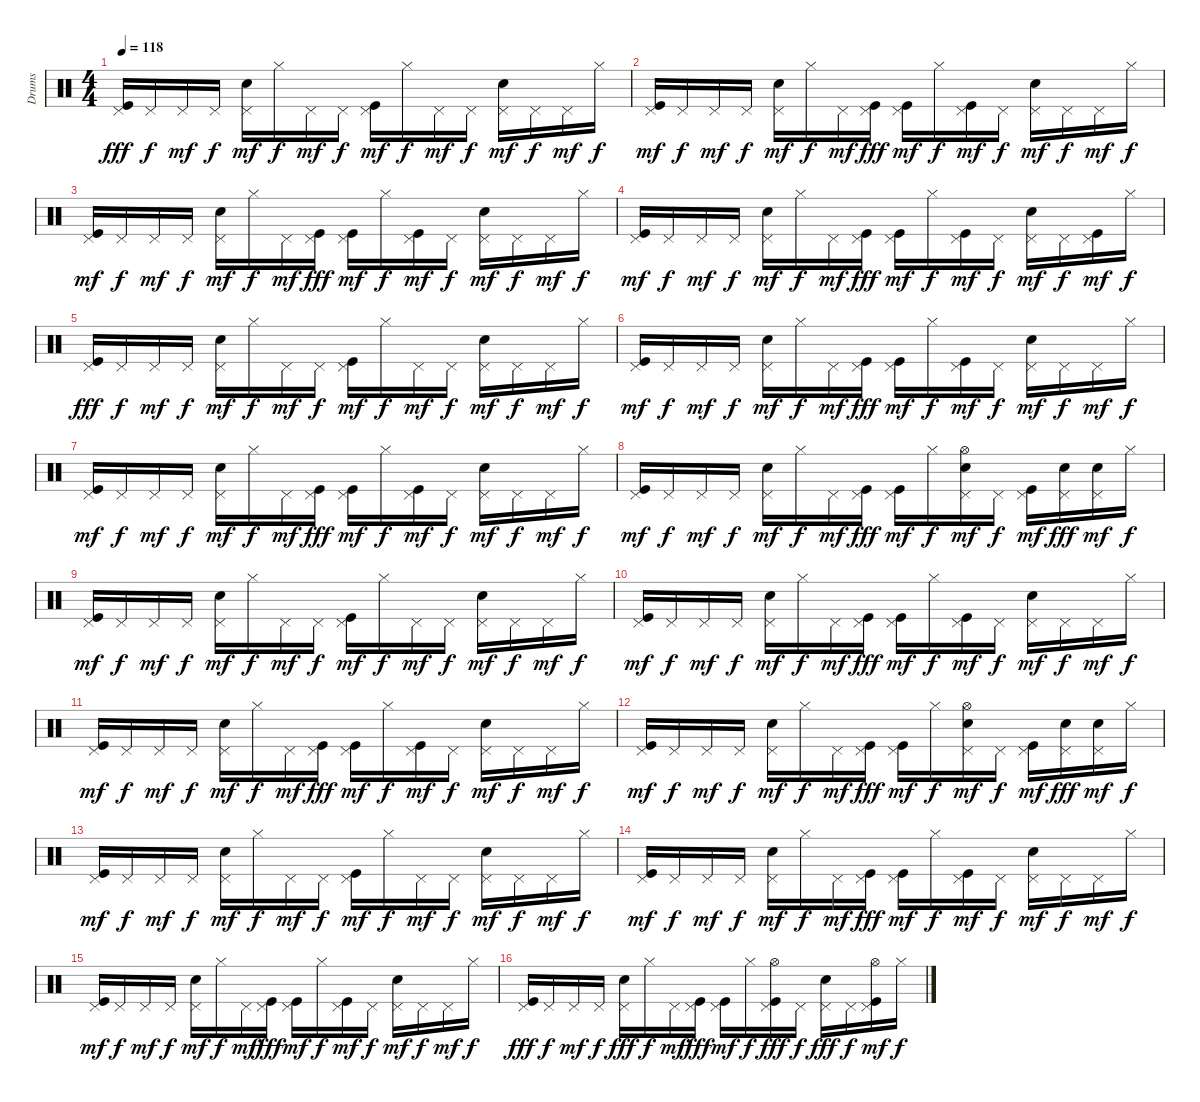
\track ("Drums" "Drums") {instrument percussion}
\staff {score}
\articulation defaults
\ts (4 4)
\tempo 118
\clef neutral
\ks c
("Pedal Hi-Hat (hit)" "Kick (hit)").16{dy fff} "Pedal Hi-Hat (hit)".16{dy f} "Pedal Hi-Hat (hit)".16{dy mf} "Pedal Hi-Hat (hit)".16{dy f} ("Electric Snare (hit)" "Pedal Hi-Hat (hit)").16{dy mf} "Hi-Hat (closed)".16{dy f} "Pedal Hi-Hat (hit)".16{dy mf} "Pedal Hi-Hat (hit)".16{dy f} ("Kick (hit)" "Pedal Hi-Hat (hit)").16{dy mf} "Hi-Hat (closed)".16{dy f} "Pedal Hi-Hat (hit)".16{dy mf} "Pedal Hi-Hat (hit)".16{dy f} ("Electric Snare (hit)" "Pedal Hi-Hat (hit)").16{dy mf} "Pedal Hi-Hat (hit)".16{dy f} "Pedal Hi-Hat (hit)".16{dy mf} "Hi-Hat (closed)".16{dy f} |
("Kick (hit)" "Pedal Hi-Hat (hit)").16{dy mf} "Pedal Hi-Hat (hit)".16{dy f} "Pedal Hi-Hat (hit)".16{dy mf} "Pedal Hi-Hat (hit)".16{dy f} ("Electric Snare (hit)" "Pedal Hi-Hat (hit)").16{dy mf} "Hi-Hat (closed)".16{dy f} "Pedal Hi-Hat (hit)".16{dy mf} ("Kick (hit)" "Pedal Hi-Hat (hit)").16{dy fff} ("Kick (hit)" "Pedal Hi-Hat (hit)").16{dy mf} "Hi-Hat (closed)".16{dy f} ("Kick (hit)" "Pedal Hi-Hat (hit)").16{dy mf} "Pedal Hi-Hat (hit)".16{dy f} ("Electric Snare (hit)" "Pedal Hi-Hat (hit)").16{dy mf} "Pedal Hi-Hat (hit)".16{dy f} "Pedal Hi-Hat (hit)".16{dy mf} "Hi-Hat (closed)".16{dy f} |
("Kick (hit)" "Pedal Hi-Hat (hit)").16{dy mf} "Pedal Hi-Hat (hit)".16{dy f} "Pedal Hi-Hat (hit)".16{dy mf} "Pedal Hi-Hat (hit)".16{dy f} ("Electric Snare (hit)" "Pedal Hi-Hat (hit)").16{dy mf} "Hi-Hat (closed)".16{dy f} "Pedal Hi-Hat (hit)".16{dy mf} ("Kick (hit)" "Pedal Hi-Hat (hit)").16{dy fff} ("Kick (hit)" "Pedal Hi-Hat (hit)").16{dy mf} "Hi-Hat (closed)".16{dy f} ("Kick (hit)" "Pedal Hi-Hat (hit)").16{dy mf} "Pedal Hi-Hat (hit)".16{dy f} ("Electric Snare (hit)" "Pedal Hi-Hat (hit)").16{dy mf} "Pedal Hi-Hat (hit)".16{dy f} "Pedal Hi-Hat (hit)".16{dy mf} "Hi-Hat (closed)".16{dy f} |
("Kick (hit)" "Pedal Hi-Hat (hit)").16{dy mf} "Pedal Hi-Hat (hit)".16{dy f} "Pedal Hi-Hat (hit)".16{dy mf} "Pedal Hi-Hat (hit)".16{dy f} ("Electric Snare (hit)" "Pedal Hi-Hat (hit)").16{dy mf} "Hi-Hat (closed)".16{dy f} "Pedal Hi-Hat (hit)".16{dy mf} ("Kick (hit)" "Pedal Hi-Hat (hit)").16{dy fff} ("Kick (hit)" "Pedal Hi-Hat (hit)").16{dy mf} "Hi-Hat (closed)".16{dy f} ("Kick (hit)" "Pedal Hi-Hat (hit)").16{dy mf} "Pedal Hi-Hat (hit)".16{dy f} ("Electric Snare (hit)" "Pedal Hi-Hat (hit)").16{dy mf} "Pedal Hi-Hat (hit)".16{dy f} ("Kick (hit)" "Pedal Hi-Hat (hit)").16{dy mf} "Hi-Hat (closed)".16{dy f} |
("Pedal Hi-Hat (hit)" "Kick (hit)").16{dy fff} "Pedal Hi-Hat (hit)".16{dy f} "Pedal Hi-Hat (hit)".16{dy mf} "Pedal Hi-Hat (hit)".16{dy f} ("Electric Snare (hit)" "Pedal Hi-Hat (hit)").16{dy mf} "Hi-Hat (closed)".16{dy f} "Pedal Hi-Hat (hit)".16{dy mf} "Pedal Hi-Hat (hit)".16{dy f} ("Kick (hit)" "Pedal Hi-Hat (hit)").16{dy mf} "Hi-Hat (closed)".16{dy f} "Pedal Hi-Hat (hit)".16{dy mf} "Pedal Hi-Hat (hit)".16{dy f} ("Electric Snare (hit)" "Pedal Hi-Hat (hit)").16{dy mf} "Pedal Hi-Hat (hit)".16{dy f} "Pedal Hi-Hat (hit)".16{dy mf} "Hi-Hat (closed)".16{dy f} |
("Kick (hit)" "Pedal Hi-Hat (hit)").16{dy mf} "Pedal Hi-Hat (hit)".16{dy f} "Pedal Hi-Hat (hit)".16{dy mf} "Pedal Hi-Hat (hit)".16{dy f} ("Electric Snare (hit)" "Pedal Hi-Hat (hit)").16{dy mf} "Hi-Hat (closed)".16{dy f} "Pedal Hi-Hat (hit)".16{dy mf} ("Kick (hit)" "Pedal Hi-Hat (hit)").16{dy fff} ("Kick (hit)" "Pedal Hi-Hat (hit)").16{dy mf} "Hi-Hat (closed)".16{dy f} ("Kick (hit)" "Pedal Hi-Hat (hit)").16{dy mf} "Pedal Hi-Hat (hit)".16{dy f} ("Electric Snare (hit)" "Pedal Hi-Hat (hit)").16{dy mf} "Pedal Hi-Hat (hit)".16{dy f} "Pedal Hi-Hat (hit)".16{dy mf} "Hi-Hat (closed)".16{dy f} |
("Kick (hit)" "Pedal Hi-Hat (hit)").16{dy mf} "Pedal Hi-Hat (hit)".16{dy f} "Pedal Hi-Hat (hit)".16{dy mf} "Pedal Hi-Hat (hit)".16{dy f} ("Electric Snare (hit)" "Pedal Hi-Hat (hit)").16{dy mf} "Hi-Hat (closed)".16{dy f} "Pedal Hi-Hat (hit)".16{dy mf} ("Kick (hit)" "Pedal Hi-Hat (hit)").16{dy fff} ("Kick (hit)" "Pedal Hi-Hat (hit)").16{dy mf} "Hi-Hat (closed)".16{dy f} ("Kick (hit)" "Pedal Hi-Hat (hit)").16{dy mf} "Pedal Hi-Hat (hit)".16{dy f} ("Electric Snare (hit)" "Pedal Hi-Hat (hit)").16{dy mf} "Pedal Hi-Hat (hit)".16{dy f} "Pedal Hi-Hat (hit)".16{dy mf} "Hi-Hat (closed)".16{dy f} |
("Kick (hit)" "Pedal Hi-Hat (hit)").16{dy mf} "Pedal Hi-Hat (hit)".16{dy f} "Pedal Hi-Hat (hit)".16{dy mf} "Pedal Hi-Hat (hit)".16{dy f} ("Electric Snare (hit)" "Pedal Hi-Hat (hit)").16{dy mf} "Hi-Hat (closed)".16{dy f} "Pedal Hi-Hat (hit)".16{dy mf} ("Kick (hit)" "Pedal Hi-Hat (hit)").16{dy fff} ("Kick (hit)" "Pedal Hi-Hat (hit)").16{dy mf} "Hi-Hat (closed)".16{dy f} ("Electric Snare (hit)" "Pedal Hi-Hat (hit)" "Hi-Hat (open)").16{dy mf} "Pedal Hi-Hat (hit)".16{dy f} ("Kick (hit)" "Pedal Hi-Hat (hit)").16{dy mf} ("Electric Snare (hit)" "Pedal Hi-Hat (hit)").16{dy fff} ("Electric Snare (hit)" "Pedal Hi-Hat (hit)").16{dy mf} "Hi-Hat (closed)".16{dy f} |
("Kick (hit)" "Pedal Hi-Hat (hit)").16{dy mf} "Pedal Hi-Hat (hit)".16{dy f} "Pedal Hi-Hat (hit)".16{dy mf} "Pedal Hi-Hat (hit)".16{dy f} ("Electric Snare (hit)" "Pedal Hi-Hat (hit)").16{dy mf} "Hi-Hat (closed)".16{dy f} "Pedal Hi-Hat (hit)".16{dy mf} "Pedal Hi-Hat (hit)".16{dy f} ("Kick (hit)" "Pedal Hi-Hat (hit)").16{dy mf} "Hi-Hat (closed)".16{dy f} "Pedal Hi-Hat (hit)".16{dy mf} "Pedal Hi-Hat (hit)".16{dy f} ("Electric Snare (hit)" "Pedal Hi-Hat (hit)").16{dy mf} "Pedal Hi-Hat (hit)".16{dy f} "Pedal Hi-Hat (hit)".16{dy mf} "Hi-Hat (closed)".16{dy f} |
("Kick (hit)" "Pedal Hi-Hat (hit)").16{dy mf} "Pedal Hi-Hat (hit)".16{dy f} "Pedal Hi-Hat (hit)".16{dy mf} "Pedal Hi-Hat (hit)".16{dy f} ("Electric Snare (hit)" "Pedal Hi-Hat (hit)").16{dy mf} "Hi-Hat (closed)".16{dy f} "Pedal Hi-Hat (hit)".16{dy mf} ("Kick (hit)" "Pedal Hi-Hat (hit)").16{dy fff} ("Kick (hit)" "Pedal Hi-Hat (hit)").16{dy mf} "Hi-Hat (closed)".16{dy f} ("Kick (hit)" "Pedal Hi-Hat (hit)").16{dy mf} "Pedal Hi-Hat (hit)".16{dy f} ("Electric Snare (hit)" "Pedal Hi-Hat (hit)").16{dy mf} "Pedal Hi-Hat (hit)".16{dy f} "Pedal Hi-Hat (hit)".16{dy mf} "Hi-Hat (closed)".16{dy f} |
("Kick (hit)" "Pedal Hi-Hat (hit)").16{dy mf} "Pedal Hi-Hat (hit)".16{dy f} "Pedal Hi-Hat (hit)".16{dy mf} "Pedal Hi-Hat (hit)".16{dy f} ("Electric Snare (hit)" "Pedal Hi-Hat (hit)").16{dy mf} "Hi-Hat (closed)".16{dy f} "Pedal Hi-Hat (hit)".16{dy mf} ("Kick (hit)" "Pedal Hi-Hat (hit)").16{dy fff} ("Kick (hit)" "Pedal Hi-Hat (hit)").16{dy mf} "Hi-Hat (closed)".16{dy f} ("Kick (hit)" "Pedal Hi-Hat (hit)").16{dy mf} "Pedal Hi-Hat (hit)".16{dy f} ("Electric Snare (hit)" "Pedal Hi-Hat (hit)").16{dy mf} "Pedal Hi-Hat (hit)".16{dy f} "Pedal Hi-Hat (hit)".16{dy mf} "Hi-Hat (closed)".16{dy f} |
("Kick (hit)" "Pedal Hi-Hat (hit)").16{dy mf} "Pedal Hi-Hat (hit)".16{dy f} "Pedal Hi-Hat (hit)".16{dy mf} "Pedal Hi-Hat (hit)".16{dy f} ("Electric Snare (hit)" "Pedal Hi-Hat (hit)").16{dy mf} "Hi-Hat (closed)".16{dy f} "Pedal Hi-Hat (hit)".16{dy mf} ("Kick (hit)" "Pedal Hi-Hat (hit)").16{dy fff} ("Kick (hit)" "Pedal Hi-Hat (hit)").16{dy mf} "Hi-Hat (closed)".16{dy f} ("Electric Snare (hit)" "Pedal Hi-Hat (hit)" "Hi-Hat (open)").16{dy mf} "Pedal Hi-Hat (hit)".16{dy f} ("Kick (hit)" "Pedal Hi-Hat (hit)").16{dy mf} ("Electric Snare (hit)" "Pedal Hi-Hat (hit)").16{dy fff} ("Electric Snare (hit)" "Pedal Hi-Hat (hit)").16{dy mf} "Hi-Hat (closed)".16{dy f} |
("Kick (hit)" "Pedal Hi-Hat (hit)").16{dy mf} "Pedal Hi-Hat (hit)".16{dy f} "Pedal Hi-Hat (hit)".16{dy mf} "Pedal Hi-Hat (hit)".16{dy f} ("Electric Snare (hit)" "Pedal Hi-Hat (hit)").16{dy mf} "Hi-Hat (closed)".16{dy f} "Pedal Hi-Hat (hit)".16{dy mf} "Pedal Hi-Hat (hit)".16{dy f} ("Kick (hit)" "Pedal Hi-Hat (hit)").16{dy mf} "Hi-Hat (closed)".16{dy f} "Pedal Hi-Hat (hit)".16{dy mf} "Pedal Hi-Hat (hit)".16{dy f} ("Electric Snare (hit)" "Pedal Hi-Hat (hit)").16{dy mf} "Pedal Hi-Hat (hit)".16{dy f} "Pedal Hi-Hat (hit)".16{dy mf} "Hi-Hat (closed)".16{dy f} |
("Kick (hit)" "Pedal Hi-Hat (hit)").16{dy mf} "Pedal Hi-Hat (hit)".16{dy f} "Pedal Hi-Hat (hit)".16{dy mf} "Pedal Hi-Hat (hit)".16{dy f} ("Electric Snare (hit)" "Pedal Hi-Hat (hit)").16{dy mf} "Hi-Hat (closed)".16{dy f} "Pedal Hi-Hat (hit)".16{dy mf} ("Kick (hit)" "Pedal Hi-Hat (hit)").16{dy fff} ("Kick (hit)" "Pedal Hi-Hat (hit)").16{dy mf} "Hi-Hat (closed)".16{dy f} ("Kick (hit)" "Pedal Hi-Hat (hit)").16{dy mf} "Pedal Hi-Hat (hit)".16{dy f} ("Electric Snare (hit)" "Pedal Hi-Hat (hit)").16{dy mf} "Pedal Hi-Hat (hit)".16{dy f} "Pedal Hi-Hat (hit)".16{dy mf} "Hi-Hat (closed)".16{dy f} |
("Kick (hit)" "Pedal Hi-Hat (hit)").16{dy mf} "Pedal Hi-Hat (hit)".16{dy f} "Pedal Hi-Hat (hit)".16{dy mf} "Pedal Hi-Hat (hit)".16{dy f} ("Electric Snare (hit)" "Pedal Hi-Hat (hit)").16{dy mf} "Hi-Hat (closed)".16{dy f} "Pedal Hi-Hat (hit)".16{dy mf} ("Kick (hit)" "Pedal Hi-Hat (hit)").16{dy fff} ("Kick (hit)" "Pedal Hi-Hat (hit)").16{dy mf} "Hi-Hat (closed)".16{dy f} ("Kick (hit)" "Pedal Hi-Hat (hit)").16{dy mf} "Pedal Hi-Hat (hit)".16{dy f} ("Electric Snare (hit)" "Pedal Hi-Hat (hit)").16{dy mf} "Pedal Hi-Hat (hit)".16{dy f} "Pedal Hi-Hat (hit)".16{dy mf} "Hi-Hat (closed)".16{dy f} |
("Pedal Hi-Hat (hit)" "Kick (hit)").16{dy fff} "Pedal Hi-Hat (hit)".16{dy f} "Pedal Hi-Hat (hit)".16{dy mf} "Pedal Hi-Hat (hit)".16{dy f} ("Pedal Hi-Hat (hit)" "Electric Snare (hit)").16{dy fff} "Hi-Hat (closed)".16{dy f} "Pedal Hi-Hat (hit)".16{dy mf} ("Pedal Hi-Hat (hit)" "Kick (hit)").16{dy fff} ("Pedal Hi-Hat (hit)" "Kick (hit)").16{dy mf} "Hi-Hat (closed)".16{dy f} ("Pedal Hi-Hat (hit)" "Hi-Hat (open)" "Kick (hit)").16{dy fff} "Pedal Hi-Hat (hit)".16{dy f} ("Pedal Hi-Hat (hit)" "Electric Snare (hit)").16{dy fff} "Pedal Hi-Hat (hit)".16{dy f} ("Pedal Hi-Hat (hit)" "Kick (hit)" "Hi-Hat (open)").16{dy mf} "Hi-Hat (closed)".16{dy f}
